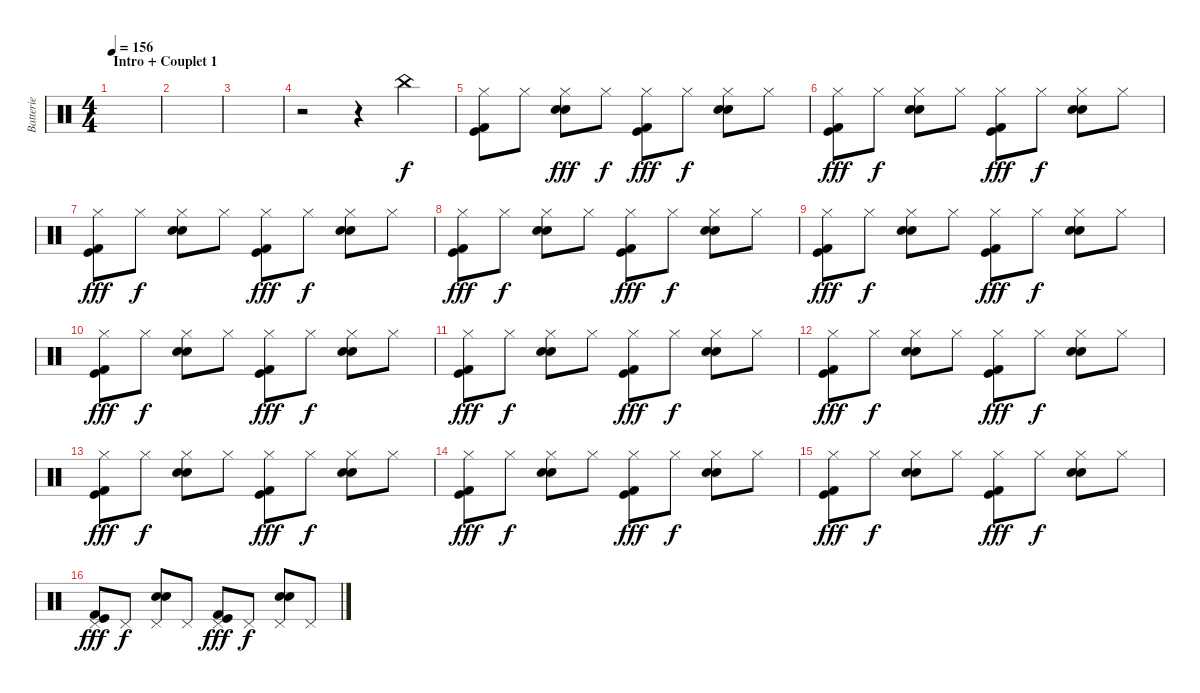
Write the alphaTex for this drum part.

\track ("Batterie" "Batterie") {instrument percussion}
\staff {score}
\articulation defaults
\ts (4 4)
\section ("" "Intro + Couplet 1")
\tempo 156
\clef neutral
\ks c
|
|
|
r.2 r.4 "China (hit)".4 |
("Hi-Hat (closed)" "Kick (hit)" "Kick (hit) 2").8 "Hi-Hat (closed)".8{dy f} ("Hi-Hat (closed)" "Snare (hit) 2" "Electric Snare (hit)").8{dy fff} "Hi-Hat (closed)".8{dy f} ("Hi-Hat (closed)" "Kick (hit)" "Kick (hit) 2").8{dy fff} "Hi-Hat (closed)".8{dy f} ("Hi-Hat (closed)" "Snare (hit) 2" "Electric Snare (hit)").8 "Hi-Hat (closed)".8 |
("Hi-Hat (closed)" "Kick (hit)" "Kick (hit) 2").8{dy fff} "Hi-Hat (closed)".8{dy f} ("Hi-Hat (closed)" "Snare (hit) 2" "Electric Snare (hit)").8 "Hi-Hat (closed)".8 ("Hi-Hat (closed)" "Kick (hit)" "Kick (hit) 2").8{dy fff} "Hi-Hat (closed)".8{dy f} ("Hi-Hat (closed)" "Snare (hit) 2" "Electric Snare (hit)").8 "Hi-Hat (closed)".8 |
("Hi-Hat (closed)" "Kick (hit)" "Kick (hit) 2").8{dy fff} "Hi-Hat (closed)".8{dy f} ("Hi-Hat (closed)" "Snare (hit) 2" "Electric Snare (hit)").8 "Hi-Hat (closed)".8 ("Hi-Hat (closed)" "Kick (hit)" "Kick (hit) 2").8{dy fff} "Hi-Hat (closed)".8{dy f} ("Hi-Hat (closed)" "Snare (hit) 2" "Electric Snare (hit)").8 "Hi-Hat (closed)".8 |
("Hi-Hat (closed)" "Kick (hit)" "Kick (hit) 2").8{dy fff} "Hi-Hat (closed)".8{dy f} ("Hi-Hat (closed)" "Snare (hit) 2" "Electric Snare (hit)").8 "Hi-Hat (closed)".8 ("Hi-Hat (closed)" "Kick (hit)" "Kick (hit) 2").8{dy fff} "Hi-Hat (closed)".8{dy f} ("Hi-Hat (closed)" "Snare (hit) 2" "Electric Snare (hit)").8 "Hi-Hat (closed)".8 |
("Hi-Hat (closed)" "Kick (hit)" "Kick (hit) 2").8{dy fff} "Hi-Hat (closed)".8{dy f} ("Hi-Hat (closed)" "Snare (hit) 2" "Electric Snare (hit)").8 "Hi-Hat (closed)".8 ("Hi-Hat (closed)" "Kick (hit)" "Kick (hit) 2").8{dy fff} "Hi-Hat (closed)".8{dy f} ("Hi-Hat (closed)" "Snare (hit) 2" "Electric Snare (hit)").8 "Hi-Hat (closed)".8 |
("Hi-Hat (closed)" "Kick (hit)" "Kick (hit) 2").8{dy fff} "Hi-Hat (closed)".8{dy f} ("Hi-Hat (closed)" "Snare (hit) 2" "Electric Snare (hit)").8 "Hi-Hat (closed)".8 ("Hi-Hat (closed)" "Kick (hit)" "Kick (hit) 2").8{dy fff} "Hi-Hat (closed)".8{dy f} ("Hi-Hat (closed)" "Snare (hit) 2" "Electric Snare (hit)").8 "Hi-Hat (closed)".8 |
("Hi-Hat (closed)" "Kick (hit)" "Kick (hit) 2").8{dy fff} "Hi-Hat (closed)".8{dy f} ("Hi-Hat (closed)" "Snare (hit) 2" "Electric Snare (hit)").8 "Hi-Hat (closed)".8 ("Hi-Hat (closed)" "Kick (hit)" "Kick (hit) 2").8{dy fff} "Hi-Hat (closed)".8{dy f} ("Hi-Hat (closed)" "Snare (hit) 2" "Electric Snare (hit)").8 "Hi-Hat (closed)".8 |
("Hi-Hat (closed)" "Kick (hit)" "Kick (hit) 2").8{dy fff} "Hi-Hat (closed)".8{dy f} ("Hi-Hat (closed)" "Snare (hit) 2" "Electric Snare (hit)").8 "Hi-Hat (closed)".8 ("Hi-Hat (closed)" "Kick (hit)" "Kick (hit) 2").8{dy fff} "Hi-Hat (closed)".8{dy f} ("Hi-Hat (closed)" "Snare (hit) 2" "Electric Snare (hit)").8 "Hi-Hat (closed)".8 |
("Hi-Hat (closed)" "Kick (hit)" "Kick (hit) 2").8{dy fff} "Hi-Hat (closed)".8{dy f} ("Hi-Hat (closed)" "Snare (hit) 2" "Electric Snare (hit)").8 "Hi-Hat (closed)".8 ("Hi-Hat (closed)" "Kick (hit)" "Kick (hit) 2").8{dy fff} "Hi-Hat (closed)".8{dy f} ("Hi-Hat (closed)" "Snare (hit) 2" "Electric Snare (hit)").8 "Hi-Hat (closed)".8 |
("Hi-Hat (closed)" "Kick (hit)" "Kick (hit) 2").8{dy fff} "Hi-Hat (closed)".8{dy f} ("Hi-Hat (closed)" "Snare (hit) 2" "Electric Snare (hit)").8 "Hi-Hat (closed)".8 ("Hi-Hat (closed)" "Kick (hit)" "Kick (hit) 2").8{dy fff} "Hi-Hat (closed)".8{dy f} ("Hi-Hat (closed)" "Snare (hit) 2" "Electric Snare (hit)").8 "Hi-Hat (closed)".8 |
("Hi-Hat (closed)" "Kick (hit)" "Kick (hit) 2").8{dy fff} "Hi-Hat (closed)".8{dy f} ("Hi-Hat (closed)" "Snare (hit) 2" "Electric Snare (hit)").8 "Hi-Hat (closed)".8 ("Hi-Hat (closed)" "Kick (hit)" "Kick (hit) 2").8{dy fff} "Hi-Hat (closed)".8{dy f} ("Hi-Hat (closed)" "Snare (hit) 2" "Electric Snare (hit)").8 "Hi-Hat (closed)".8 |
("Pedal Hi-Hat (hit)" "Kick (hit)" "Kick (hit) 2").8{dy fff} "Pedal Hi-Hat (hit)".8{dy f} ("Pedal Hi-Hat (hit)" "Snare (hit) 2" "Electric Snare (hit)").8 "Pedal Hi-Hat (hit)".8 ("Pedal Hi-Hat (hit)" "Kick (hit)" "Kick (hit) 2").8{dy fff} "Pedal Hi-Hat (hit)".8{dy f} ("Pedal Hi-Hat (hit)" "Snare (hit) 2" "Electric Snare (hit)").8 "Pedal Hi-Hat (hit)".8
